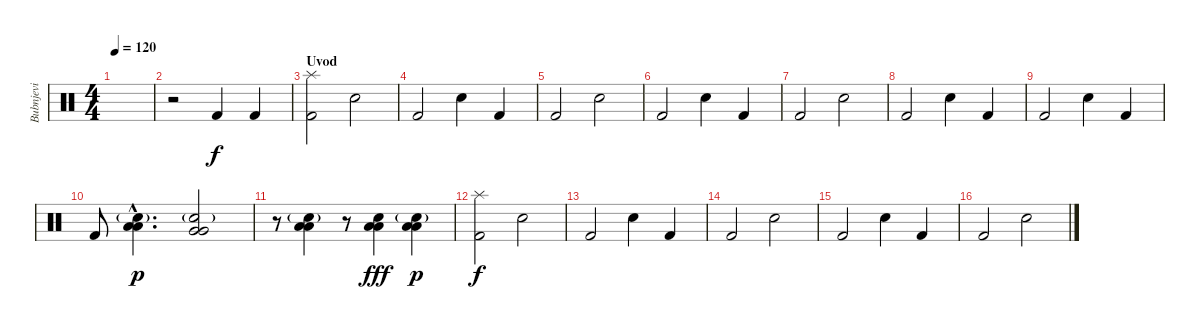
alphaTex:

\track ("Bubnjevi" "Bubnjevi") {instrument percussion}
\staff {score}
\articulation defaults
\ts (4 4)
\tempo 120
\clef neutral
\ks c
|
r.2 "Kick (hit) 2".4 "Kick (hit) 2".4 |
\section ("" "Uvod")
("Splash (hit)" "Kick (hit) 2").2 "Snare (hit) 2".2 |
"Kick (hit) 2".2 "Snare (hit) 2".4 "Kick (hit) 2".4 |
"Kick (hit) 2".2 "Snare (hit) 2".2 |
"Kick (hit) 2".2 "Snare (hit) 2".4 "Kick (hit) 2".4 |
"Kick (hit) 2".2 "Snare (hit) 2".2 |
"Kick (hit) 2".2 "Snare (hit) 2".4 "Kick (hit) 2".4 |
"Kick (hit) 2".2 "Snare (hit) 2".4 "Kick (hit) 2".4 |
"Kick (hit) 2".8 ("Low Tom (hit)"{hac} "Low Tom (hit)"{hac} "Snare (hit) 2"{g hac}).4{d dy p} ("Very Low Tom (hit)" "Very Low Tom (hit)" "Snare (hit) 2"{g}).2 |
r.8 ("Low Tom (hit)" "Low Tom (hit)" "Snare (hit) 2"{g}).4 r.8 ("Low Floor Tom (hit)" "Low Floor Tom (hit)" "Snare (hit) 2").4{dy fff} ("Low Floor Tom (hit)" "Low Floor Tom (hit)" "Snare (hit) 2"{g}).4{dy p} |
("Splash (hit)" "Kick (hit) 2").2{dy f} "Snare (hit) 2".2 |
"Kick (hit) 2".2 "Snare (hit) 2".4 "Kick (hit) 2".4 |
"Kick (hit) 2".2 "Snare (hit) 2".2 |
"Kick (hit) 2".2 "Snare (hit) 2".4 "Kick (hit) 2".4 |
"Kick (hit) 2".2 "Snare (hit) 2".2
